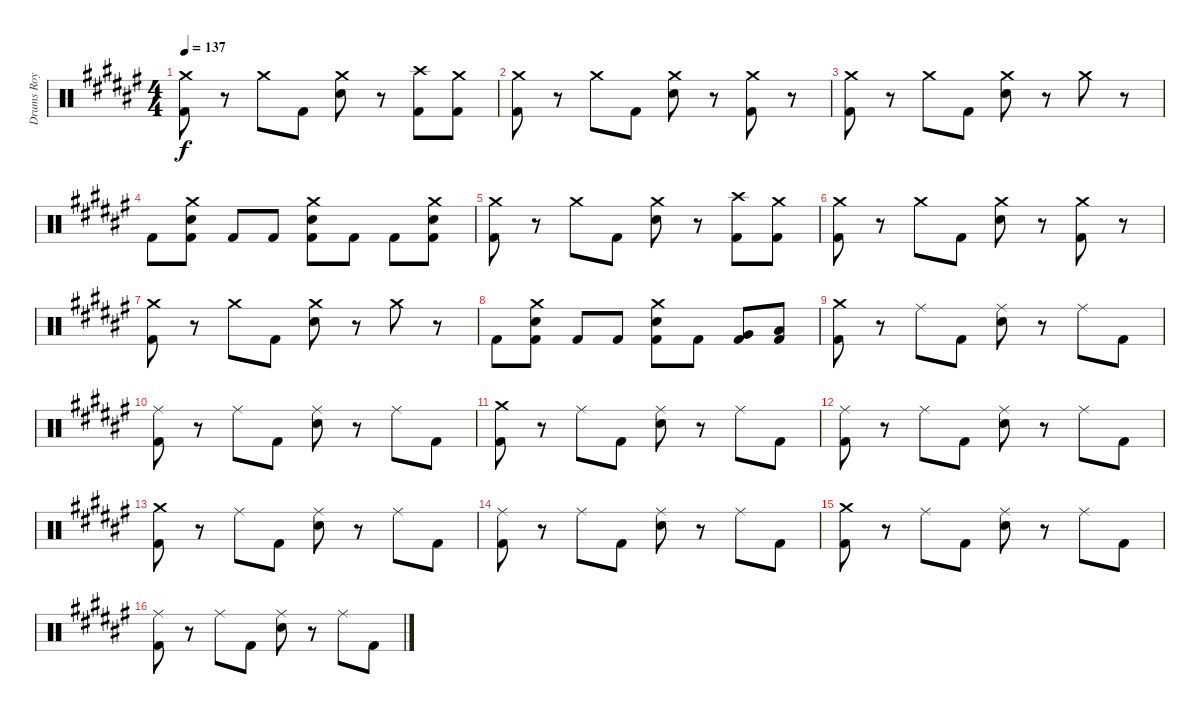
\track ("Drums Roy mayorga" "Drums Roy ") {instrument percussion}
\staff {score}
\articulation defaults
\ts (4 4)
\tempo 137
\clef neutral
\ks d#minor
("Crash medium (hit)" "Kick (hit) 2").8{dy f} r.8 "Crash medium (hit)".8 "Kick (hit) 2".8 ("Crash medium (hit)" "Electric Snare (hit)").8 r.8 ("Crash high (hit)" "Kick (hit) 2").8 ("Crash medium (hit)" "Kick (hit) 2").8 |
("Crash medium (hit)" "Kick (hit) 2").8 r.8 "Crash medium (hit)".8 "Kick (hit) 2".8 ("Crash medium (hit)" "Electric Snare (hit)").8 r.8 ("Crash medium (hit)" "Kick (hit) 2").8 r.8 |
("Crash medium (hit)" "Kick (hit) 2").8 r.8 "Crash medium (hit)".8 "Kick (hit) 2".8 ("Crash medium (hit)" "Electric Snare (hit)").8 r.8 "Crash medium (hit)".8 r.8 |
"Kick (hit) 2".8 ("Crash medium (hit)" "Electric Snare (hit)" "Kick (hit) 2").8 "Kick (hit) 2".8 "Kick (hit) 2".8 ("Crash medium (hit)" "Electric Snare (hit)" "Kick (hit) 2").8 "Kick (hit) 2".8 "Kick (hit) 2".8 ("Crash medium (hit)" "Electric Snare (hit)" "Kick (hit) 2").8 |
("Crash medium (hit)" "Kick (hit) 2").8 r.8 "Crash medium (hit)".8 "Kick (hit) 2".8 ("Crash medium (hit)" "Electric Snare (hit)").8 r.8 ("Crash high (hit)" "Kick (hit) 2").8 ("Crash medium (hit)" "Kick (hit) 2").8 |
("Crash medium (hit)" "Kick (hit) 2").8 r.8 "Crash medium (hit)".8 "Kick (hit) 2".8 ("Crash medium (hit)" "Electric Snare (hit)").8 r.8 ("Crash medium (hit)" "Kick (hit) 2").8 r.8 |
("Crash medium (hit)" "Kick (hit) 2").8 r.8 "Crash medium (hit)".8 "Kick (hit) 2".8 ("Crash medium (hit)" "Electric Snare (hit)").8 r.8 "Crash medium (hit)".8 r.8 |
"Kick (hit) 2".8 ("Crash medium (hit)" "Electric Snare (hit)" "Kick (hit) 2").8 "Kick (hit) 2".8 "Kick (hit) 2".8 ("Crash medium (hit)" "Electric Snare (hit)" "Kick (hit) 2").8 "Kick (hit) 2".8 ("Very Low Tom (hit)" "Kick (hit) 2").8 ("Low Tom (hit)" "Kick (hit) 2").8 |
("Crash medium (hit)" "Kick (hit) 2").8 r.8 "Ride (middle)".8 "Kick (hit) 2".8 ("Ride (middle)" "Electric Snare (hit)").8 r.8 "Ride (middle)".8 "Kick (hit) 2".8 |
("Ride (middle)" "Kick (hit) 2").8 r.8 "Ride (middle)".8 "Kick (hit) 2".8 ("Ride (middle)" "Electric Snare (hit)").8 r.8 "Ride (middle)".8 "Kick (hit) 2".8 |
("Crash medium (hit)" "Kick (hit) 2").8 r.8 "Ride (middle)".8 "Kick (hit) 2".8 ("Ride (middle)" "Electric Snare (hit)").8 r.8 "Ride (middle)".8 "Kick (hit) 2".8 |
("Ride (middle)" "Kick (hit) 2").8 r.8 "Ride (middle)".8 "Kick (hit) 2".8 ("Ride (middle)" "Electric Snare (hit)").8 r.8 "Ride (middle)".8 "Kick (hit) 2".8 |
("Crash medium (hit)" "Kick (hit) 2").8 r.8 "Ride (middle)".8 "Kick (hit) 2".8 ("Ride (middle)" "Electric Snare (hit)").8 r.8 "Ride (middle)".8 "Kick (hit) 2".8 |
("Ride (middle)" "Kick (hit) 2").8 r.8 "Ride (middle)".8 "Kick (hit) 2".8 ("Ride (middle)" "Electric Snare (hit)").8 r.8 "Ride (middle)".8 "Kick (hit) 2".8 |
("Crash medium (hit)" "Kick (hit) 2").8 r.8 "Ride (middle)".8 "Kick (hit) 2".8 ("Ride (middle)" "Electric Snare (hit)").8 r.8 "Ride (middle)".8 "Kick (hit) 2".8 |
("Ride (middle)" "Kick (hit) 2").8 r.8 "Ride (middle)".8 "Kick (hit) 2".8 ("Ride (middle)" "Electric Snare (hit)").8 r.8 "Ride (middle)".8 "Kick (hit) 2".8
